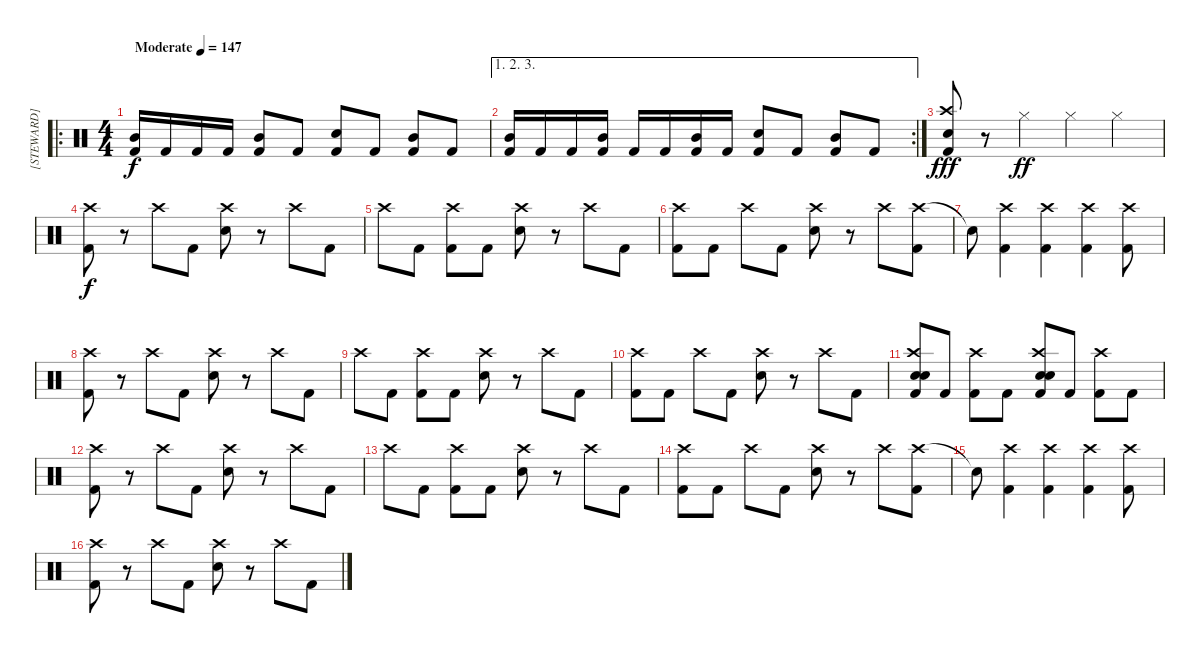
\track ("[STEWARD]" "[STEWARD]") {instrument percussion}
\staff {score}
\articulation defaults
\ro
\ts (4 4)
\tempo (147 "Moderate")
\clef neutral
\ks c
("Mid Tom (hit)" "Kick (hit) 2").16{dy f} "Kick (hit) 2".16 "Kick (hit) 2".16 "Kick (hit) 2".16 ("Mid Tom (hit)" "Kick (hit) 2").8 "Kick (hit) 2".8 ("Snare (hit) 2" "Kick (hit) 2").8 "Kick (hit) 2".8 ("Mid Tom (hit)" "Kick (hit) 2").8 "Kick (hit) 2".8 |
\ae (1 2 3)
\rc 2
("Mid Tom (hit)" "Kick (hit) 2").16 "Kick (hit) 2".16 "Kick (hit) 2".16 ("Mid Tom (hit)" "Kick (hit) 2").16 "Kick (hit) 2".16 "Kick (hit) 2".16 ("Mid Tom (hit)" "Kick (hit) 2").16 "Kick (hit) 2".16 ("Snare (hit) 2" "Kick (hit) 2").8 "Kick (hit) 2".8 ("Mid Tom (hit)" "Kick (hit) 2").8 "Kick (hit) 2".8 |
("Crash high (hit)" "Electric Snare (hit)" "Kick (hit) 2").8{dy fff} r.8 "Hi-Hat (closed)".4{dy ff} "Hi-Hat (closed)".4 "Hi-Hat (closed)".4 |
("Crash high (hit)" "Kick (hit) 2").8{dy f} r.8 "Crash high (hit)".8 "Kick (hit) 2".8 ("Crash high (hit)" "Electric Snare (hit)").8 r.8 "Crash high (hit)".8 "Kick (hit) 2".8 |
"Crash high (hit)".8 "Kick (hit) 2".8 ("Crash high (hit)" "Kick (hit) 2").8 "Kick (hit) 2".8 ("Crash high (hit)" "Electric Snare (hit)").8 r.8 "Crash high (hit)".8 "Kick (hit) 2".8 |
("Crash high (hit)" "Kick (hit) 2").8 "Kick (hit) 2".8 "Crash high (hit)".8 "Kick (hit) 2".8 ("Crash high (hit)" "Electric Snare (hit)").8 r.8 "Crash high (hit)".8 ("Crash high (hit)" "Kick (hit) 2").8 |
"Snare (hit)"{t}.8 ("Crash high (hit)" "Kick (hit) 2").4 ("Crash high (hit)" "Kick (hit) 2").4 ("Crash high (hit)" "Kick (hit) 2").4 ("Crash high (hit)" "Kick (hit) 2").8 |
("Crash high (hit)" "Kick (hit) 2").8 r.8 "Crash high (hit)".8 "Kick (hit) 2".8 ("Crash high (hit)" "Electric Snare (hit)").8 r.8 "Crash high (hit)".8 "Kick (hit) 2".8 |
"Crash high (hit)".8 "Kick (hit) 2".8 ("Crash high (hit)" "Kick (hit) 2").8 "Kick (hit) 2".8 ("Crash high (hit)" "Electric Snare (hit)").8 r.8 "Crash high (hit)".8 "Kick (hit) 2".8 |
("Crash high (hit)" "Kick (hit) 2").8 "Kick (hit) 2".8 "Crash high (hit)".8 "Kick (hit) 2".8 ("Crash high (hit)" "Electric Snare (hit)").8 r.8 "Crash high (hit)".8 "Kick (hit) 2".8 |
("Crash high (hit)" "Electric Snare (hit)" "Snare (hit) 2" "Kick (hit) 2").8 "Kick (hit) 2".8 ("Crash high (hit)" "Kick (hit) 2").8 "Kick (hit) 2".8 ("Crash high (hit)" "Electric Snare (hit)" "Snare (hit) 2" "Kick (hit) 2").8 "Kick (hit) 2".8 ("Crash high (hit)" "Kick (hit) 2").8 "Kick (hit) 2".8 |
("Crash high (hit)" "Kick (hit) 2").8 r.8 "Crash high (hit)".8 "Kick (hit) 2".8 ("Crash high (hit)" "Electric Snare (hit)").8 r.8 "Crash high (hit)".8 "Kick (hit) 2".8 |
"Crash high (hit)".8 "Kick (hit) 2".8 ("Crash high (hit)" "Kick (hit) 2").8 "Kick (hit) 2".8 ("Crash high (hit)" "Electric Snare (hit)").8 r.8 "Crash high (hit)".8 "Kick (hit) 2".8 |
("Crash high (hit)" "Kick (hit) 2").8 "Kick (hit) 2".8 "Crash high (hit)".8 "Kick (hit) 2".8 ("Crash high (hit)" "Electric Snare (hit)").8 r.8 "Crash high (hit)".8 ("Crash high (hit)" "Kick (hit) 2").8 |
"Snare (hit)"{t}.8 ("Crash high (hit)" "Kick (hit) 2").4 ("Crash high (hit)" "Kick (hit) 2").4 ("Crash high (hit)" "Kick (hit) 2").4 ("Crash high (hit)" "Kick (hit) 2").8 |
("Crash high (hit)" "Kick (hit) 2").8 r.8 "Crash high (hit)".8 "Kick (hit) 2".8 ("Crash high (hit)" "Electric Snare (hit)").8 r.8 "Crash high (hit)".8 "Kick (hit) 2".8
